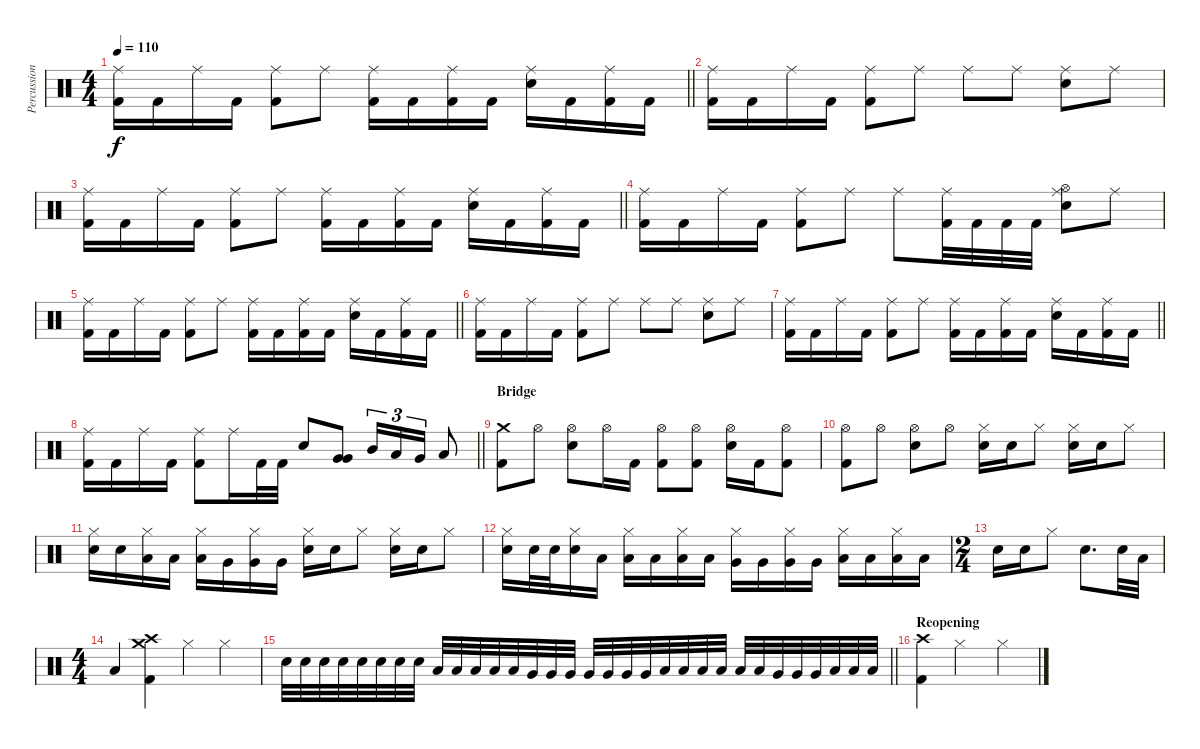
\track ("Percussion" "Percussion") {instrument percussion}
\staff {score}
\articulation defaults
\ts (4 4)
\tempo 110
\clef neutral
\barLineRight lightlight
\ks c
("Ride (middle)" "Kick (hit) 2").16{dy f} "Kick (hit) 2".16 "Ride (middle)".16 "Kick (hit) 2".16 ("Ride (middle)" "Kick (hit) 2").8 "Ride (middle)".8 ("Ride (middle)" "Kick (hit) 2").16 "Kick (hit) 2".16 ("Ride (middle)" "Kick (hit) 2").16 "Kick (hit) 2".16 ("Ride (middle)" "Snare (hit) 2").16 "Kick (hit) 2".16 ("Ride (middle)" "Kick (hit) 2").16 "Kick (hit) 2".16 |
("Ride (middle)" "Kick (hit) 2").16 "Kick (hit) 2".16 "Ride (middle)".16 "Kick (hit) 2".16 ("Ride (middle)" "Kick (hit) 2").8 "Ride (middle)".8 "Ride (middle)".8 "Ride (middle)".8 ("Ride (middle)" "Snare (hit) 2").8 "Ride (middle)".8 |
\barLineRight lightlight
("Ride (middle)" "Kick (hit) 2").16 "Kick (hit) 2".16 "Ride (middle)".16 "Kick (hit) 2".16 ("Ride (middle)" "Kick (hit) 2").8 "Ride (middle)".8 ("Ride (middle)" "Kick (hit) 2").16 "Kick (hit) 2".16 ("Ride (middle)" "Kick (hit) 2").16 "Kick (hit) 2".16 ("Ride (middle)" "Snare (hit) 2").16 "Kick (hit) 2".16 ("Ride (middle)" "Kick (hit) 2").16 "Kick (hit) 2".16 |
("Ride (middle)" "Kick (hit) 2").16 "Kick (hit) 2".16 "Ride (middle)".16 "Kick (hit) 2".16 ("Ride (middle)" "Kick (hit) 2").8 "Ride (middle)".8 "Ride (middle)".8 ("Ride (middle)" "Kick (hit) 2").32 "Kick (hit) 2".32 "Kick (hit) 2".32 "Kick (hit) 2".32 ("Ride (middle)" "Hi-Hat (open)" "Snare (hit) 2").8 "Ride (middle)".8 |
\barLineRight lightlight
("Ride (middle)" "Kick (hit) 2").16 "Kick (hit) 2".16 "Ride (middle)".16 "Kick (hit) 2".16 ("Ride (middle)" "Kick (hit) 2").8 "Ride (middle)".8 ("Ride (middle)" "Kick (hit) 2").16 "Kick (hit) 2".16 ("Ride (middle)" "Kick (hit) 2").16 "Kick (hit) 2".16 ("Ride (middle)" "Snare (hit) 2").16 "Kick (hit) 2".16 ("Ride (middle)" "Kick (hit) 2").16 "Kick (hit) 2".16 |
("Ride (middle)" "Kick (hit) 2").16 "Kick (hit) 2".16 "Ride (middle)".16 "Kick (hit) 2".16 ("Ride (middle)" "Kick (hit) 2").8 "Ride (middle)".8 "Ride (middle)".8 "Ride (middle)".8 ("Ride (middle)" "Snare (hit) 2").8 "Ride (middle)".8 |
\barLineRight lightlight
("Ride (middle)" "Kick (hit) 2").16 "Kick (hit) 2".16 "Ride (middle)".16 "Kick (hit) 2".16 ("Ride (middle)" "Kick (hit) 2").8 "Ride (middle)".8 ("Ride (middle)" "Kick (hit) 2").16 "Kick (hit) 2".16 ("Ride (middle)" "Kick (hit) 2").16 "Kick (hit) 2".16 ("Ride (middle)" "Snare (hit) 2").16 "Kick (hit) 2".16 ("Ride (middle)" "Kick (hit) 2").16 "Kick (hit) 2".16 |
\barLineRight lightlight
("Ride (middle)" "Kick (hit) 2").16 "Kick (hit) 2".16 "Ride (middle)".16 "Kick (hit) 2".16 ("Ride (middle)" "Kick (hit) 2").8 "Ride (middle)".16 "Kick (hit) 2".32 "Kick (hit) 2".32 "Snare (hit) 2".8 ("Very Low Tom (hit)" "Very Low Tom (hit)").8 "Mid Tom (hit)".16{tu (3 2)} "Low Tom (hit)".16{tu (3 2)} "Very Low Tom (hit)".16{tu (3 2)} "Low Floor Tom (hit)".8 |
\section ("" "Bridge")
("Crash medium (hit)" "Kick (hit) 2").8 "Hi-Hat (open)".8 ("Hi-Hat (open)" "Snare (hit) 2").8 "Hi-Hat (open)".16 "Kick (hit) 2".16 ("Hi-Hat (open)" "Kick (hit) 2").8 ("Hi-Hat (open)" "Kick (hit) 2").8 ("Hi-Hat (open)" "Snare (hit) 2").16 "Kick (hit) 2".16 ("Hi-Hat (open)" "Kick (hit) 2").8 |
("Hi-Hat (open)" "Kick (hit) 2").8 "Hi-Hat (open)".8 ("Hi-Hat (open)" "Snare (hit) 2").8 "Hi-Hat (open)".8 ("Hi-Hat (closed)" "Snare (hit) 2").16 "Snare (hit) 2".16 "Hi-Hat (closed)".8 ("Hi-Hat (closed)" "Snare (hit) 2").16 "Snare (hit) 2".16 "Hi-Hat (closed)".8 |
("Hi-Hat (closed)" "Snare (hit) 2").16 "Snare (hit) 2".16 ("Hi-Hat (closed)" "Low Tom (hit)").16 "Low Tom (hit)".16 ("Hi-Hat (closed)" "Low Tom (hit)").16 "Very Low Tom (hit)".16 ("Hi-Hat (closed)" "Very Low Tom (hit)").16 "Very Low Tom (hit)".16 ("Hi-Hat (closed)" "Snare (hit) 2").16 "Snare (hit) 2".16 "Hi-Hat (closed)".8 ("Hi-Hat (closed)" "Snare (hit) 2").16 "Snare (hit) 2".16 "Hi-Hat (closed)".8 |
("Hi-Hat (closed)" "Snare (hit) 2").16 "Snare (hit) 2".32 "Snare (hit) 2".32 ("Hi-Hat (closed)" "Snare (hit) 2").16 "Low Tom (hit)".16 ("Hi-Hat (closed)" "Low Tom (hit)").16 "Low Tom (hit)".16 ("Hi-Hat (closed)" "Low Tom (hit)").16 "Low Tom (hit)".16 ("Hi-Hat (closed)" "Very Low Tom (hit)").16 "Very Low Tom (hit)".16 ("Hi-Hat (closed)" "Very Low Tom (hit)").16 "Very Low Tom (hit)".16 ("Hi-Hat (closed)" "Low Floor Tom (hit)").16 "Low Floor Tom (hit)".16 ("Hi-Hat (closed)" "Low Floor Tom (hit)").16 "Low Floor Tom (hit)".16 |
\ts (2 4)
"Snare (hit) 2".16 "Snare (hit) 2".16 "Hi-Hat (closed)".8 "Snare (hit) 2".8{d} "Snare (hit) 2".32 "Low Tom (hit)".32 |
\ts (4 4)
"Low Floor Tom (hit)".4 ("Crash medium (hit)" "Crash high (hit)" "Kick (hit) 2").4 "Hi-Hat (closed)".4 "Hi-Hat (closed)".4 |
\barLineRight lightlight "Snare (hit) 2".32 "Snare (hit) 2".32 "Snare (hit) 2".32 "Snare (hit) 2".32 "Snare (hit) 2".32 "Snare (hit) 2".32 "Snare (hit) 2".32 "Snare (hit) 2".32 "Low Tom (hit)".32 "Low Tom (hit)".32 "Low Tom (hit)".32 "Low Tom (hit)".32 "Low Tom (hit)".32 "Very Low Tom (hit)".32 "Very Low Tom (hit)".32 "Very Low Tom (hit)".32 "Very Low Tom (hit)".32 "Very Low Tom (hit)".32 "Very Low Tom (hit)".32 "Very Low Tom (hit)".32 "Low Tom (hit)".32 "Low Tom (hit)".32 "Low Tom (hit)".32 "Low Tom (hit)".32 "Low Tom (hit)".32 "Low Tom (hit)".32 "Very Low Tom (hit)".32 "Very Low Tom (hit)".32 "Very Low Tom (hit)".32 "Low Floor Tom (hit)".32 "Low Floor Tom (hit)".32 "Low Floor Tom (hit)".32
|
\section ("" "Reopening")
("Crash high (hit)" "Kick (hit) 2").4 "Hi-Hat (closed)".2 "Hi-Hat (closed)".4
